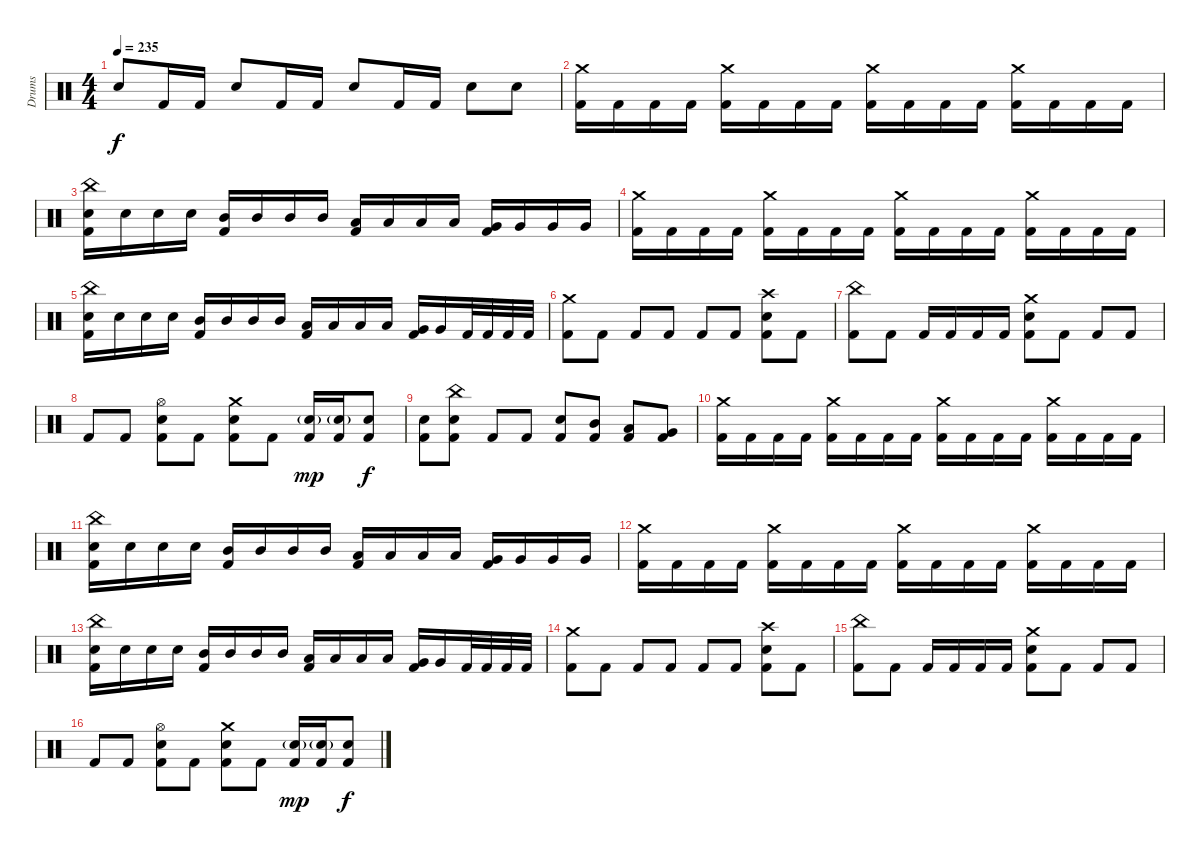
\track ("Drums" "Drums") {instrument percussion}
\staff {score}
\articulation defaults
\ts (4 4)
\tempo 235
\clef neutral
\ks c "Electric Snare (hit)".8{dy f} "Kick (hit) 2".16 "Kick (hit) 2".16 "Electric Snare (hit)".8 "Kick (hit) 2".16 "Kick (hit) 2".16 "Electric Snare (hit)".8 "Kick (hit) 2".16 "Kick (hit) 2".16 "Electric Snare (hit)".8 "Electric Snare (hit)".8
|
("Crash medium (hit)" "Kick (hit) 2").16 "Kick (hit) 2".16 "Kick (hit) 2".16 "Kick (hit) 2".16 ("Crash medium (hit)" "Kick (hit) 2").16 "Kick (hit) 2".16 "Kick (hit) 2".16 "Kick (hit) 2".16 ("Crash medium (hit)" "Kick (hit) 2").16 "Kick (hit) 2".16 "Kick (hit) 2".16 "Kick (hit) 2".16 ("Crash medium (hit)" "Kick (hit) 2").16 "Kick (hit) 2".16 "Kick (hit) 2".16 "Kick (hit) 2".16 |
("China (hit)" "Electric Snare (hit)" "Kick (hit) 2").16 "Electric Snare (hit)".16 "Electric Snare (hit)".16 "Electric Snare (hit)".16 ("Mid Tom (hit)" "Kick (hit) 2").16 "Mid Tom (hit)".16 "Mid Tom (hit)".16 "Mid Tom (hit)".16 ("Low Tom (hit)" "Kick (hit) 2").16 "Low Tom (hit)".16 "Low Tom (hit)".16 "Low Tom (hit)".16 ("Very Low Tom (hit)" "Kick (hit) 2").16 "Very Low Tom (hit)".16 "Very Low Tom (hit)".16 "Very Low Tom (hit)".16 |
("Crash medium (hit)" "Kick (hit) 2").16 "Kick (hit) 2".16 "Kick (hit) 2".16 "Kick (hit) 2".16 ("Crash medium (hit)" "Kick (hit) 2").16 "Kick (hit) 2".16 "Kick (hit) 2".16 "Kick (hit) 2".16 ("Crash medium (hit)" "Kick (hit) 2").16 "Kick (hit) 2".16 "Kick (hit) 2".16 "Kick (hit) 2".16 ("Crash medium (hit)" "Kick (hit) 2").16 "Kick (hit) 2".16 "Kick (hit) 2".16 "Kick (hit) 2".16 |
("China (hit)" "Electric Snare (hit)" "Kick (hit) 2").16 "Electric Snare (hit)".16 "Electric Snare (hit)".16 "Electric Snare (hit)".16 ("Mid Tom (hit)" "Kick (hit) 2").16 "Mid Tom (hit)".16 "Mid Tom (hit)".16 "Mid Tom (hit)".16 ("Low Tom (hit)" "Kick (hit) 2").16 "Low Tom (hit)".16 "Low Tom (hit)".16 "Low Tom (hit)".16 ("Very Low Tom (hit)" "Kick (hit) 2").16 "Very Low Tom (hit)".16 "Kick (hit) 2".32 "Kick (hit) 2".32 "Kick (hit) 2".32 "Kick (hit) 2".32 |
("Crash medium (hit)" "Kick (hit) 2").8 "Kick (hit) 2".8 "Kick (hit) 2".8 "Kick (hit) 2".8 "Kick (hit) 2".8 "Kick (hit) 2".8 ("Crash high (hit)" "Electric Snare (hit)" "Kick (hit) 2").8 "Kick (hit) 2".8 |
("China (hit)" "Kick (hit) 2").8 "Kick (hit) 2".8 "Kick (hit) 2".16 "Kick (hit) 2".16 "Kick (hit) 2".16 "Kick (hit) 2".16 ("Crash medium (hit)" "Electric Snare (hit)" "Kick (hit) 2").8 "Kick (hit) 2".8 "Kick (hit) 2".8 "Kick (hit) 2".8 |
"Kick (hit) 2".8 "Kick (hit) 2".8 ("Hi-Hat (open)" "Electric Snare (hit)" "Kick (hit) 2").8 "Kick (hit) 2".8 ("Crash medium (hit)" "Electric Snare (hit)" "Kick (hit) 2").8 "Kick (hit) 2".8 ("Electric Snare (hit)"{g} "Kick (hit) 2").16{dy mp} ("Electric Snare (hit)"{g} "Kick (hit) 2").16 ("Electric Snare (hit)" "Kick (hit) 2").8{dy f} |
("Electric Snare (hit)" "Kick (hit) 2").8 ("China (hit)" "Electric Snare (hit)" "Kick (hit) 2").8 "Kick (hit) 2".8 "Kick (hit) 2".8 ("Electric Snare (hit)" "Kick (hit) 2").8 ("Mid Tom (hit)" "Kick (hit) 2").8 ("Low Tom (hit)" "Kick (hit) 2").8 ("Very Low Tom (hit)" "Kick (hit) 2").8 |
("Crash medium (hit)" "Kick (hit) 2").16 "Kick (hit) 2".16 "Kick (hit) 2".16 "Kick (hit) 2".16 ("Crash medium (hit)" "Kick (hit) 2").16 "Kick (hit) 2".16 "Kick (hit) 2".16 "Kick (hit) 2".16 ("Crash medium (hit)" "Kick (hit) 2").16 "Kick (hit) 2".16 "Kick (hit) 2".16 "Kick (hit) 2".16 ("Crash medium (hit)" "Kick (hit) 2").16 "Kick (hit) 2".16 "Kick (hit) 2".16 "Kick (hit) 2".16 |
("China (hit)" "Electric Snare (hit)" "Kick (hit) 2").16 "Electric Snare (hit)".16 "Electric Snare (hit)".16 "Electric Snare (hit)".16 ("Mid Tom (hit)" "Kick (hit) 2").16 "Mid Tom (hit)".16 "Mid Tom (hit)".16 "Mid Tom (hit)".16 ("Low Tom (hit)" "Kick (hit) 2").16 "Low Tom (hit)".16 "Low Tom (hit)".16 "Low Tom (hit)".16 ("Very Low Tom (hit)" "Kick (hit) 2").16 "Very Low Tom (hit)".16 "Very Low Tom (hit)".16 "Very Low Tom (hit)".16 |
("Crash medium (hit)" "Kick (hit) 2").16 "Kick (hit) 2".16 "Kick (hit) 2".16 "Kick (hit) 2".16 ("Crash medium (hit)" "Kick (hit) 2").16 "Kick (hit) 2".16 "Kick (hit) 2".16 "Kick (hit) 2".16 ("Crash medium (hit)" "Kick (hit) 2").16 "Kick (hit) 2".16 "Kick (hit) 2".16 "Kick (hit) 2".16 ("Crash medium (hit)" "Kick (hit) 2").16 "Kick (hit) 2".16 "Kick (hit) 2".16 "Kick (hit) 2".16 |
("China (hit)" "Electric Snare (hit)" "Kick (hit) 2").16 "Electric Snare (hit)".16 "Electric Snare (hit)".16 "Electric Snare (hit)".16 ("Mid Tom (hit)" "Kick (hit) 2").16 "Mid Tom (hit)".16 "Mid Tom (hit)".16 "Mid Tom (hit)".16 ("Low Tom (hit)" "Kick (hit) 2").16 "Low Tom (hit)".16 "Low Tom (hit)".16 "Low Tom (hit)".16 ("Very Low Tom (hit)" "Kick (hit) 2").16 "Very Low Tom (hit)".16 "Kick (hit) 2".32 "Kick (hit) 2".32 "Kick (hit) 2".32 "Kick (hit) 2".32 |
("Crash medium (hit)" "Kick (hit) 2").8 "Kick (hit) 2".8 "Kick (hit) 2".8 "Kick (hit) 2".8 "Kick (hit) 2".8 "Kick (hit) 2".8 ("Crash high (hit)" "Electric Snare (hit)" "Kick (hit) 2").8 "Kick (hit) 2".8 |
("China (hit)" "Kick (hit) 2").8 "Kick (hit) 2".8 "Kick (hit) 2".16 "Kick (hit) 2".16 "Kick (hit) 2".16 "Kick (hit) 2".16 ("Crash medium (hit)" "Electric Snare (hit)" "Kick (hit) 2").8 "Kick (hit) 2".8 "Kick (hit) 2".8 "Kick (hit) 2".8 |
"Kick (hit) 2".8 "Kick (hit) 2".8 ("Hi-Hat (open)" "Electric Snare (hit)" "Kick (hit) 2").8 "Kick (hit) 2".8 ("Crash medium (hit)" "Electric Snare (hit)" "Kick (hit) 2").8 "Kick (hit) 2".8 ("Electric Snare (hit)"{g} "Kick (hit) 2").16{dy mp} ("Electric Snare (hit)"{g} "Kick (hit) 2").16 ("Electric Snare (hit)" "Kick (hit) 2").8{dy f}
